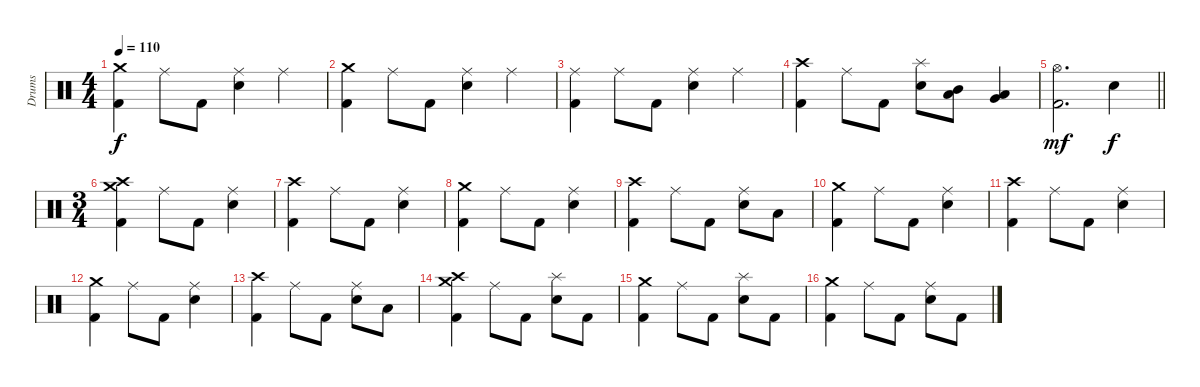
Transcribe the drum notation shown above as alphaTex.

\track ("Drums" "Drums") {instrument percussion}
\staff {score}
\articulation defaults
\ts (4 4)
\tempo 110
\clef neutral
\ks c
("Crash medium (hit)" "Kick (hit) 2").4{dy f} "Ride (middle)".8 "Kick (hit) 2".8 ("Ride (middle)" "Snare (hit) 2").4 "Ride (middle)".4 |
("Crash medium (hit)" "Kick (hit) 2").4 "Ride (middle)".8 "Kick (hit) 2".8 ("Ride (middle)" "Snare (hit) 2").4 "Ride (middle)".4 |
("Ride (middle)" "Kick (hit) 2").4 "Ride (middle)".8 "Kick (hit) 2".8 ("Ride (middle)" "Snare (hit) 2").4 "Ride (middle)".4 |
("Crash high (hit)" "Kick (hit) 2").4 "Ride (middle)".8 "Kick (hit) 2".8 ("Splash (hit)" "Snare (hit) 2").8 ("Mid Tom (hit)" "Low Tom (hit)").8 ("Low Tom (hit)" "Very Low Tom (hit)").4 |
\barLineRight lightlight
("Hi-Hat (open)" "Kick (hit) 2").2{d dy mf} "Snare (hit) 2".4{dy f} |
\ts (3 4)
("Crash medium (hit)" "Crash high (hit)" "Kick (hit) 2").4 "Ride (middle)".8 "Kick (hit) 2".8 ("Ride (middle)" "Snare (hit) 2").4 |
("Crash high (hit)" "Kick (hit) 2").4 "Ride (middle)".8 "Kick (hit) 2".8 ("Ride (middle)" "Snare (hit) 2").4 |
("Crash medium (hit)" "Kick (hit) 2").4 "Ride (middle)".8 "Kick (hit) 2".8 ("Ride (middle)" "Snare (hit) 2").4 |
("Crash high (hit)" "Kick (hit) 2").4 "Ride (middle)".8 "Kick (hit) 2".8 ("Ride (middle)" "Snare (hit) 2").8 "Low Tom (hit)".8 |
("Crash medium (hit)" "Kick (hit) 2").4 "Ride (middle)".8 "Kick (hit) 2".8 ("Ride (middle)" "Snare (hit) 2").4 |
("Crash high (hit)" "Kick (hit) 2").4 "Ride (middle)".8 "Kick (hit) 2".8 ("Ride (middle)" "Snare (hit) 2").4 |
("Crash medium (hit)" "Kick (hit) 2").4 "Ride (middle)".8 "Kick (hit) 2".8 ("Ride (middle)" "Snare (hit) 2").4 |
("Crash high (hit)" "Kick (hit) 2").4 "Ride (middle)".8 "Kick (hit) 2".8 ("Ride (middle)" "Snare (hit) 2").8 "Low Tom (hit)".8 |
("Crash medium (hit)" "Crash high (hit)" "Kick (hit) 2").4 "Ride (middle)".8 "Kick (hit) 2".8 ("Splash (hit)" "Snare (hit) 2").8 "Kick (hit) 2".8 |
("Crash medium (hit)" "Kick (hit) 2").4 "Ride (middle)".8 "Kick (hit) 2".8 ("Splash (hit)" "Snare (hit) 2").8 "Kick (hit) 2".8 |
("Crash medium (hit)" "Kick (hit) 2").4 "Ride (middle)".8 "Kick (hit) 2".8 ("Ride (middle)" "Snare (hit) 2").8 "Kick (hit) 2".8
